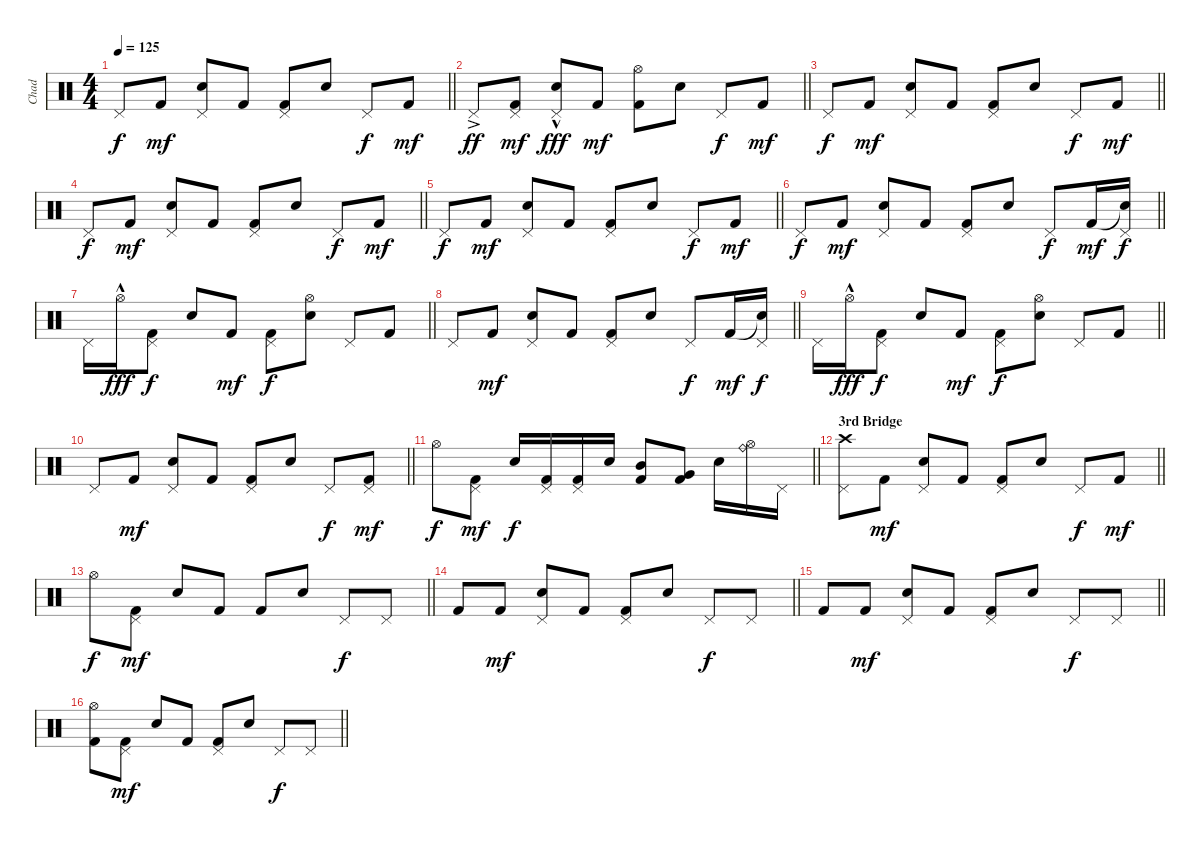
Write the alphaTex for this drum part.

\track ("Chad" "Chad") {instrument percussion}
\staff {score}
\articulation defaults
\ts (4 4)
\tempo 125
\clef neutral
\barLineRight lightlight
\ks c "Pedal Hi-Hat (hit)".8{dy f} "Kick (hit) 2".8{dy mf}
("Electric Snare (hit)" "Pedal Hi-Hat (hit)").8 "Kick (hit) 2".8 ("Kick (hit) 2" "Pedal Hi-Hat (hit)").8 "Electric Snare (hit)".8 "Pedal Hi-Hat (hit)".8{dy f} "Kick (hit) 2".8{dy mf} |
\barLineRight lightlight "Pedal Hi-Hat (hit)"{ac}.8{dy ff}
("Kick (hit) 2" "Pedal Hi-Hat (hit)").8{dy mf} ("Electric Snare (hit)" "Pedal Hi-Hat (hit)"{hac}).8{dy fff} "Kick (hit) 2".8{dy mf} ("Kick (hit) 2" "Hi-Hat (open)").8 "Electric Snare (hit)".8 "Pedal Hi-Hat (hit)".8{dy f} "Kick (hit) 2".8{dy mf} |
\barLineRight lightlight "Pedal Hi-Hat (hit)".8{dy f} "Kick (hit) 2".8{dy mf}
("Electric Snare (hit)" "Pedal Hi-Hat (hit)").8 "Kick (hit) 2".8 ("Kick (hit) 2" "Pedal Hi-Hat (hit)").8 "Electric Snare (hit)".8 "Pedal Hi-Hat (hit)".8{dy f} "Kick (hit) 2".8{dy mf} |
\barLineRight lightlight "Pedal Hi-Hat (hit)".8{dy f} "Kick (hit) 2".8{dy mf}
("Electric Snare (hit)" "Pedal Hi-Hat (hit)").8 "Kick (hit) 2".8 ("Kick (hit) 2" "Pedal Hi-Hat (hit)").8 "Electric Snare (hit)".8 "Pedal Hi-Hat (hit)".8{dy f} "Kick (hit) 2".8{dy mf} |
\barLineRight lightlight "Pedal Hi-Hat (hit)".8{dy f} "Kick (hit) 2".8{dy mf}
("Electric Snare (hit)" "Pedal Hi-Hat (hit)").8 "Kick (hit) 2".8 ("Kick (hit) 2" "Pedal Hi-Hat (hit)").8 "Electric Snare (hit)".8 "Pedal Hi-Hat (hit)".8{dy f} "Kick (hit) 2".8{dy mf} |
\barLineRight lightlight "Pedal Hi-Hat (hit)".8{dy f} "Kick (hit) 2".8{dy mf}
("Electric Snare (hit)" "Pedal Hi-Hat (hit)").8 "Kick (hit) 2".8 ("Kick (hit) 2" "Pedal Hi-Hat (hit)").8 "Electric Snare (hit)".8 "Pedal Hi-Hat (hit)".8{dy f} "Kick (hit) 2".16{dy mf} ("Snare (hit)"{t} "Pedal Hi-Hat (hit)").16{dy f} |
\barLineRight lightlight "Pedal Hi-Hat (hit)".16 "Hi-Hat (open)"{hac}.16{dy fff}
("Kick (hit) 2" "Pedal Hi-Hat (hit)").8{dy f} "Electric Snare (hit)".8 "Kick (hit) 2".8{dy mf} ("Kick (hit) 2" "Pedal Hi-Hat (hit)").8{dy f} ("Electric Snare (hit)" "Hi-Hat (open)").8 "Pedal Hi-Hat (hit)".8 "Kick (hit) 2".8 |
\barLineRight lightlight "Pedal Hi-Hat (hit)".8 "Kick (hit) 2".8{dy mf}
("Electric Snare (hit)" "Pedal Hi-Hat (hit)").8 "Kick (hit) 2".8 ("Kick (hit) 2" "Pedal Hi-Hat (hit)").8 "Electric Snare (hit)".8 "Pedal Hi-Hat (hit)".8{dy f} "Kick (hit) 2".16{dy mf} ("Snare (hit)"{t} "Pedal Hi-Hat (hit)").16{dy f} |
\barLineRight lightlight "Pedal Hi-Hat (hit)".16 "Hi-Hat (open)"{hac}.16{dy fff}
("Kick (hit) 2" "Pedal Hi-Hat (hit)").8{dy f} "Electric Snare (hit)".8 "Kick (hit) 2".8{dy mf} ("Kick (hit) 2" "Pedal Hi-Hat (hit)").8{dy f} ("Electric Snare (hit)" "Hi-Hat (open)").8 "Pedal Hi-Hat (hit)".8 "Kick (hit) 2".8 |
\barLineRight lightlight "Pedal Hi-Hat (hit)".8 "Kick (hit) 2".8{dy mf}
("Electric Snare (hit)" "Pedal Hi-Hat (hit)").8 "Kick (hit) 2".8 ("Kick (hit) 2" "Pedal Hi-Hat (hit)").8 "Electric Snare (hit)".8 "Pedal Hi-Hat (hit)".8{dy f} ("Kick (hit) 2" "Pedal Hi-Hat (hit)").8{dy mf} |
\barLineRight lightlight "Hi-Hat (open)".8{dy f}
("Kick (hit) 2" "Pedal Hi-Hat (hit)").8{dy mf} "Electric Snare (hit)".16{dy f} ("Kick (hit) 2" "Pedal Hi-Hat (hit)").16 ("Kick (hit) 2" "Pedal Hi-Hat (hit)").16 "Electric Snare (hit)".16 ("Mid Tom (hit)" "Kick (hit) 2").8 ("Very Low Tom (hit)" "Kick (hit) 2").8 "Electric Snare (hit)".16 ("Ride (bell)" "Hi-Hat (open)").16 "Pedal Hi-Hat (hit)".16 |
\section ("" "3rd Bridge")
\barLineRight lightlight
("Crash high (hit)" "Pedal Hi-Hat (hit)").8 "Kick (hit) 2".8{dy mf} ("Electric Snare (hit)" "Pedal Hi-Hat (hit)").8 "Kick (hit) 2".8 ("Kick (hit) 2" "Pedal Hi-Hat (hit)").8 "Electric Snare (hit)".8 "Pedal Hi-Hat (hit)".8{dy f} "Kick (hit) 2".8{dy mf} |
\barLineRight lightlight "Hi-Hat (open)".8{dy f}
("Kick (hit) 2" "Pedal Hi-Hat (hit)").8{dy mf} "Electric Snare (hit)".8 "Kick (hit) 2".8 "Kick (hit) 2".8 "Electric Snare (hit)".8 "Pedal Hi-Hat (hit)".8{dy f} "Pedal Hi-Hat (hit)".8 |
\barLineRight lightlight "Kick (hit) 2".8 "Kick (hit) 2".8{dy mf}
("Electric Snare (hit)" "Pedal Hi-Hat (hit)").8 "Kick (hit) 2".8 ("Kick (hit) 2" "Pedal Hi-Hat (hit)").8 "Electric Snare (hit)".8 "Pedal Hi-Hat (hit)".8{dy f} "Pedal Hi-Hat (hit)".8 |
\barLineRight lightlight "Kick (hit) 2".8 "Kick (hit) 2".8{dy mf}
("Electric Snare (hit)" "Pedal Hi-Hat (hit)").8 "Kick (hit) 2".8 ("Kick (hit) 2" "Pedal Hi-Hat (hit)").8 "Electric Snare (hit)".8 "Pedal Hi-Hat (hit)".8{dy f} "Pedal Hi-Hat (hit)".8 |
\barLineRight lightlight
("Kick (hit) 2" "Hi-Hat (open)").8 ("Kick (hit) 2" "Pedal Hi-Hat (hit)").8{dy mf} "Electric Snare (hit)".8 "Kick (hit) 2".8 ("Kick (hit) 2" "Pedal Hi-Hat (hit)").8 "Electric Snare (hit)".8 "Pedal Hi-Hat (hit)".8{dy f} "Pedal Hi-Hat (hit)".8
